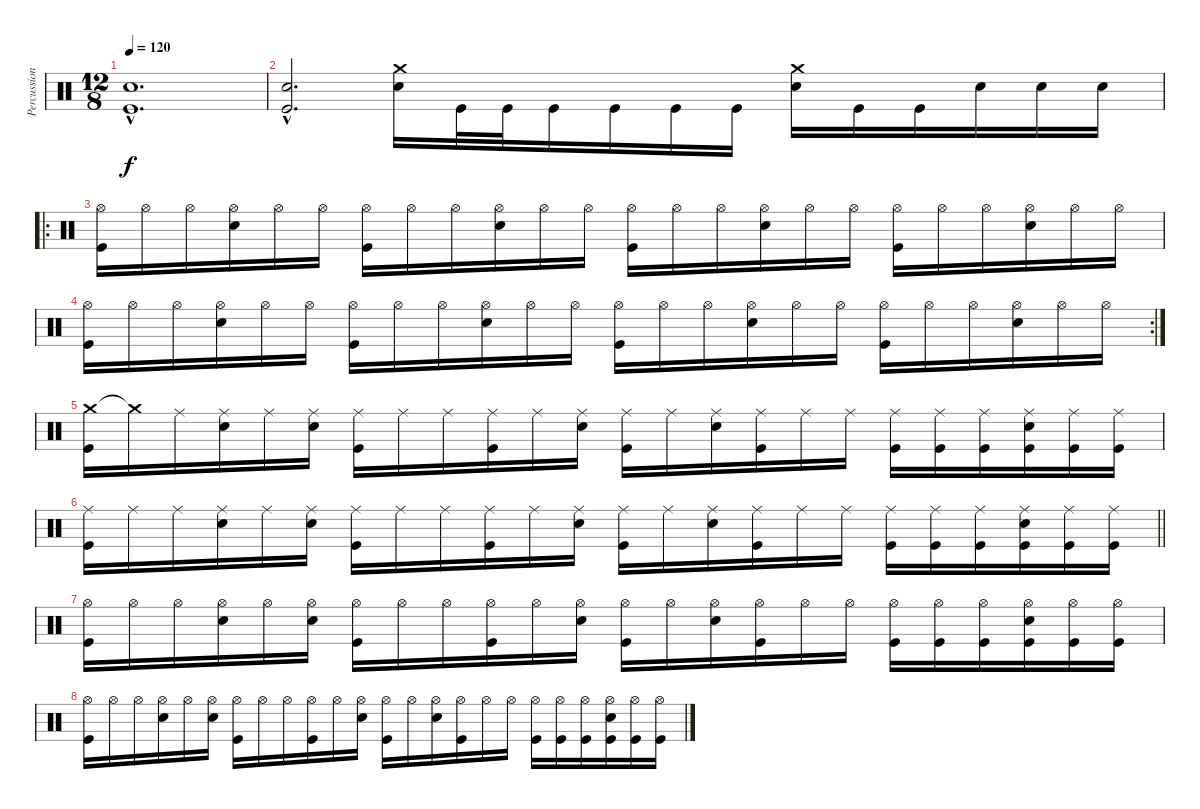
\track ("Percussion" "Percussion") {instrument percussion}
\staff {score}
\articulation defaults
\ts (12 8)
\tempo 120
\clef neutral
\ks c
("Snare (hit) 2"{hac} "Kick (hit)"{hac}).1{d dy f} |
("Snare (hit) 2"{hac} "Kick (hit)"{hac}).2{d} ("Crash medium (hit)" "Snare (hit) 2").16 "Kick (hit)".32 "Kick (hit)".32 "Kick (hit)".16 "Kick (hit)".16 "Kick (hit)".16 "Kick (hit)".16 ("Crash medium (hit)" "Snare (hit) 2").16 "Kick (hit)".16 "Kick (hit)".16 "Snare (hit) 2".16 "Snare (hit) 2".16 "Snare (hit) 2".16 |
\ro
("Hi-Hat (open)" "Kick (hit)").16 "Hi-Hat (open)".16 "Hi-Hat (open)".16 ("Hi-Hat (open)" "Snare (hit) 2").16 "Hi-Hat (open)".16 "Hi-Hat (open)".16 ("Hi-Hat (open)" "Kick (hit)").16 "Hi-Hat (open)".16 "Hi-Hat (open)".16 ("Hi-Hat (open)" "Snare (hit) 2").16 "Hi-Hat (open)".16 "Hi-Hat (open)".16 ("Hi-Hat (open)" "Kick (hit)").16 "Hi-Hat (open)".16 "Hi-Hat (open)".16 ("Hi-Hat (open)" "Snare (hit) 2").16 "Hi-Hat (open)".16 "Hi-Hat (open)".16 ("Hi-Hat (open)" "Kick (hit)").16 "Hi-Hat (open)".16 "Hi-Hat (open)".16 ("Hi-Hat (open)" "Snare (hit) 2").16 "Hi-Hat (open)".16 "Hi-Hat (open)".16 |
\rc 2
("Hi-Hat (open)" "Kick (hit)").16 "Hi-Hat (open)".16 "Hi-Hat (open)".16 ("Hi-Hat (open)" "Snare (hit) 2").16 "Hi-Hat (open)".16 "Hi-Hat (open)".16 ("Hi-Hat (open)" "Kick (hit)").16 "Hi-Hat (open)".16 "Hi-Hat (open)".16 ("Hi-Hat (open)" "Snare (hit) 2").16 "Hi-Hat (open)".16 "Hi-Hat (open)".16 ("Hi-Hat (open)" "Kick (hit)").16 "Hi-Hat (open)".16 "Hi-Hat (open)".16 ("Hi-Hat (open)" "Snare (hit) 2").16 "Hi-Hat (open)".16 "Hi-Hat (open)".16 ("Hi-Hat (open)" "Kick (hit)").16 "Hi-Hat (open)".16 "Hi-Hat (open)".16 ("Hi-Hat (open)" "Snare (hit) 2").16 "Hi-Hat (open)".16 "Hi-Hat (open)".16 |
("Crash medium (hit)" "Kick (hit)").16 "Crash medium (hit)"{t}.16 "Ride (middle)".16 ("Ride (middle)" "Snare (hit) 2").16 "Ride (middle)".16 ("Ride (middle)" "Snare (hit) 2").16 ("Ride (middle)" "Kick (hit)").16 "Ride (middle)".16 "Ride (middle)".16 ("Ride (middle)" "Kick (hit)").16 "Ride (middle)".16 ("Ride (middle)" "Snare (hit) 2").16 ("Ride (middle)" "Kick (hit)").16 "Ride (middle)".16 ("Ride (middle)" "Snare (hit) 2").16 ("Ride (middle)" "Kick (hit)").16 "Ride (middle)".16 "Ride (middle)".16 ("Ride (middle)" "Kick (hit)").16 ("Ride (middle)" "Kick (hit)").16 ("Ride (middle)" "Kick (hit)").16 ("Ride (middle)" "Snare (hit) 2" "Kick (hit)").16 ("Ride (middle)" "Kick (hit)").16 ("Ride (middle)" "Kick (hit)").16 |
\barLineRight lightlight
("Ride (middle)" "Kick (hit)").16 "Ride (middle)".16 "Ride (middle)".16 ("Ride (middle)" "Snare (hit) 2").16 "Ride (middle)".16 ("Ride (middle)" "Snare (hit) 2").16 ("Ride (middle)" "Kick (hit)").16 "Ride (middle)".16 "Ride (middle)".16 ("Ride (middle)" "Kick (hit)").16 "Ride (middle)".16 ("Ride (middle)" "Snare (hit) 2").16 ("Ride (middle)" "Kick (hit)").16 "Ride (middle)".16 ("Ride (middle)" "Snare (hit) 2").16 ("Ride (middle)" "Kick (hit)").16 "Ride (middle)".16 "Ride (middle)".16 ("Ride (middle)" "Kick (hit)").16 ("Ride (middle)" "Kick (hit)").16 ("Ride (middle)" "Kick (hit)").16 ("Ride (middle)" "Snare (hit) 2" "Kick (hit)").16 ("Ride (middle)" "Kick (hit)").16 ("Ride (middle)" "Kick (hit)").16 |
("Hi-Hat (open)" "Kick (hit)").16 "Hi-Hat (open)".16 "Hi-Hat (open)".16 ("Hi-Hat (open)" "Snare (hit) 2").16 "Hi-Hat (open)".16 ("Hi-Hat (open)" "Snare (hit) 2").16 ("Hi-Hat (open)" "Kick (hit)").16 "Hi-Hat (open)".16 "Hi-Hat (open)".16 ("Hi-Hat (open)" "Kick (hit)").16 "Hi-Hat (open)".16 ("Hi-Hat (open)" "Snare (hit) 2").16 ("Hi-Hat (open)" "Kick (hit)").16 "Hi-Hat (open)".16 ("Hi-Hat (open)" "Snare (hit) 2").16 ("Hi-Hat (open)" "Kick (hit)").16 "Hi-Hat (open)".16 "Hi-Hat (open)".16 ("Hi-Hat (open)" "Kick (hit)").16 ("Hi-Hat (open)" "Kick (hit)").16 ("Hi-Hat (open)" "Kick (hit)").16 ("Hi-Hat (open)" "Snare (hit) 2" "Kick (hit)").16 ("Hi-Hat (open)" "Kick (hit)").16 ("Hi-Hat (open)" "Kick (hit)").16 |
("Hi-Hat (open)" "Kick (hit)").16 "Hi-Hat (open)".16 "Hi-Hat (open)".16 ("Hi-Hat (open)" "Snare (hit) 2").16 "Hi-Hat (open)".16 ("Hi-Hat (open)" "Snare (hit) 2").16 ("Hi-Hat (open)" "Kick (hit)").16 "Hi-Hat (open)".16 "Hi-Hat (open)".16 ("Hi-Hat (open)" "Kick (hit)").16 "Hi-Hat (open)".16 ("Hi-Hat (open)" "Snare (hit) 2").16 ("Hi-Hat (open)" "Kick (hit)").16 "Hi-Hat (open)".16 ("Hi-Hat (open)" "Snare (hit) 2").16 ("Hi-Hat (open)" "Kick (hit)").16 "Hi-Hat (open)".16 "Hi-Hat (open)".16 ("Hi-Hat (open)" "Kick (hit)").16 ("Hi-Hat (open)" "Kick (hit)").16 ("Hi-Hat (open)" "Kick (hit)").16 ("Hi-Hat (open)" "Snare (hit) 2" "Kick (hit)").16 ("Hi-Hat (open)" "Kick (hit)").16 ("Hi-Hat (open)" "Kick (hit)").16
